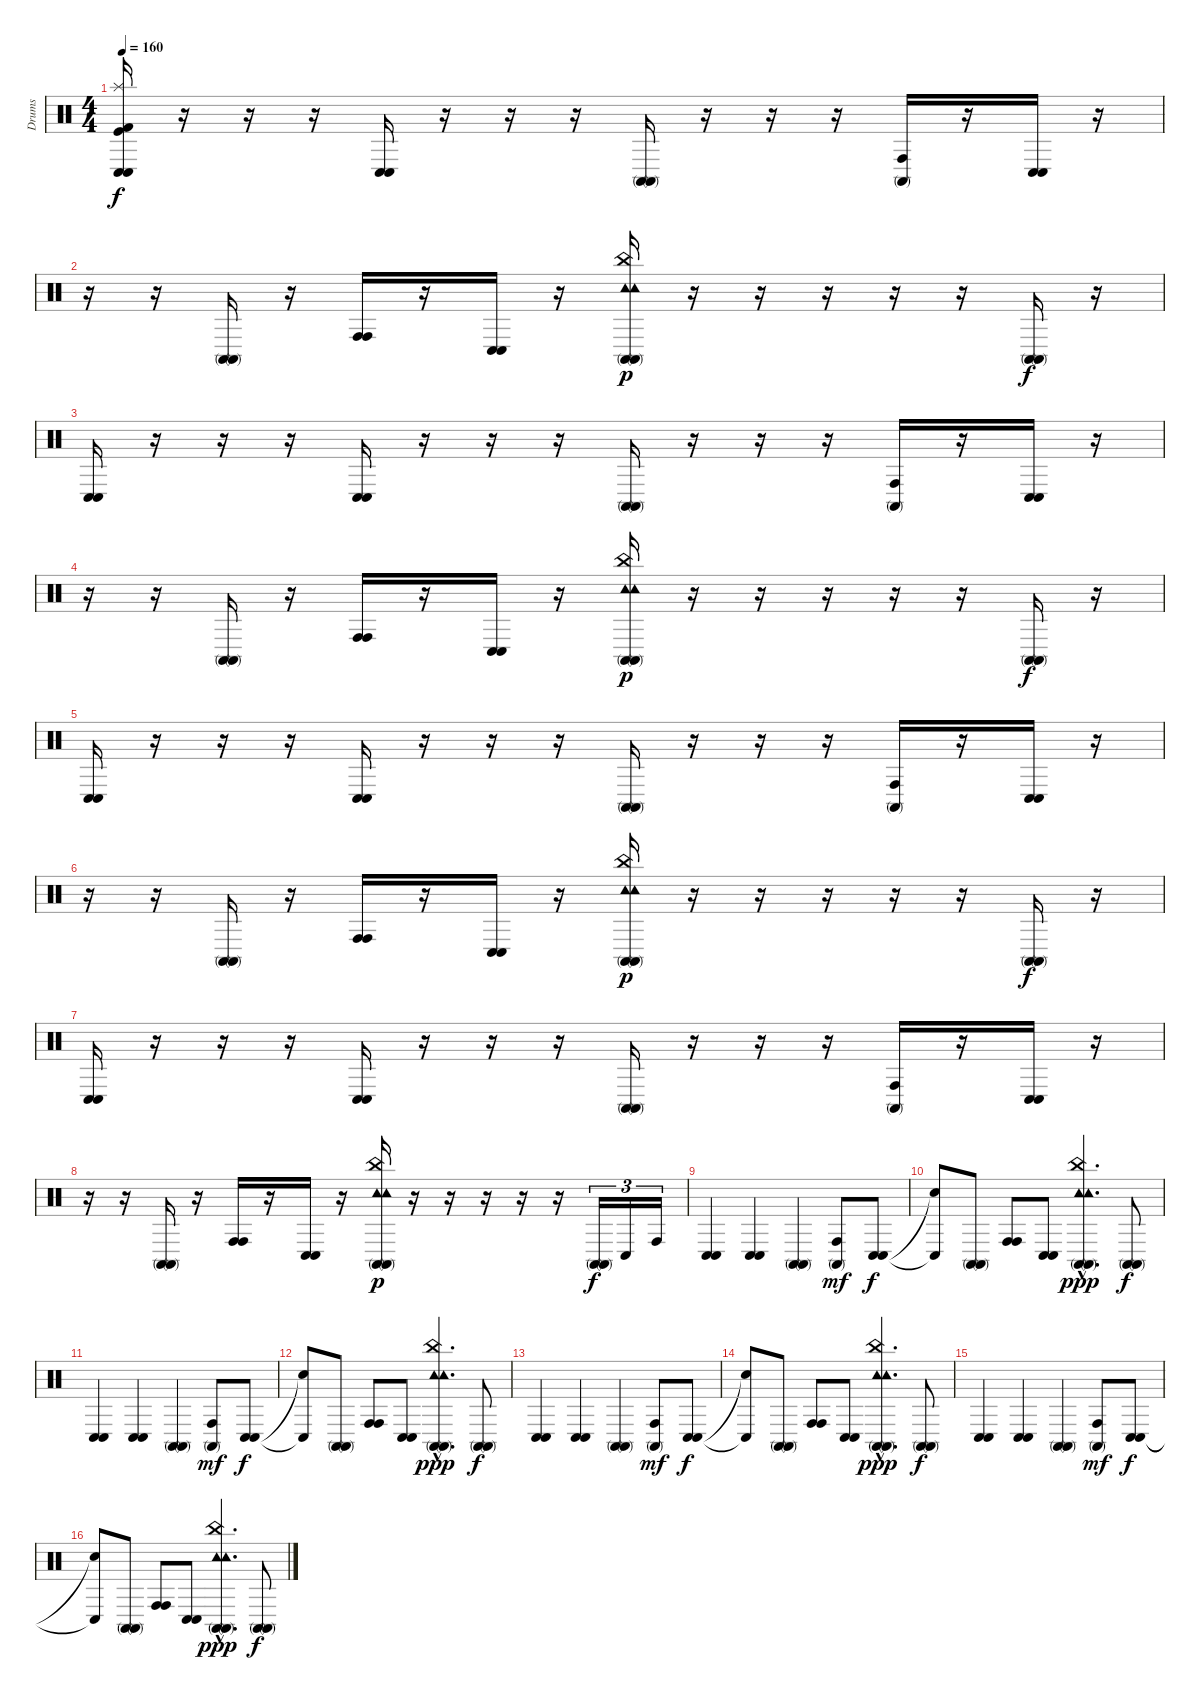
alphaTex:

\track ("Drums" "Drums") {instrument percussion}
\staff {score}
\articulation defaults
\ts (4 4)
\tempo 160
\clef neutral
\ks c
("Conga low (hit)" "Conga low (hit)" "Splash (hit)" "Kick (hit)" "Kick (hit) 2").16{dy f} r.16 r.16 r.16 ("Conga low (hit)" "Conga low (hit)").16 r.16 r.16 r.16 ("Conga high (mute)" "Conga high (mute)").16 r.16 r.16 r.16 ("Conga high (hit)" "Conga high (mute)").16 r.16 ("Conga low (hit)" "Conga low (hit)").16 r.16 |
r.16 r.16 ("Conga high (mute)" "Conga high (mute)").16 r.16 ("Conga high (hit)" "Conga high (hit)").16 r.16 ("Conga low (hit)" "Conga low (hit)").16 r.16 ("Conga high (mute)" "Conga high (mute)" "Tambourine (hit)" "Tambourine (hit)" "China (hit)").16{dy p} r.16 r.16 r.16 r.16 r.16 ("Conga high (mute)" "Conga high (mute)").16{dy f} r.16 |
("Conga low (hit)" "Conga low (hit)").16 r.16 r.16 r.16 ("Conga low (hit)" "Conga low (hit)").16 r.16 r.16 r.16 ("Conga high (mute)" "Conga high (mute)").16 r.16 r.16 r.16 ("Conga high (hit)" "Conga high (mute)").16 r.16 ("Conga low (hit)" "Conga low (hit)").16 r.16 |
r.16 r.16 ("Conga high (mute)" "Conga high (mute)").16 r.16 ("Conga high (hit)" "Conga high (hit)").16 r.16 ("Conga low (hit)" "Conga low (hit)").16 r.16 ("Conga high (mute)" "Conga high (mute)" "Tambourine (hit)" "Tambourine (hit)" "China (hit)").16{dy p} r.16 r.16 r.16 r.16 r.16 ("Conga high (mute)" "Conga high (mute)").16{dy f} r.16 |
("Conga low (hit)" "Conga low (hit)").16 r.16 r.16 r.16 ("Conga low (hit)" "Conga low (hit)").16 r.16 r.16 r.16 ("Conga high (mute)" "Conga high (mute)").16 r.16 r.16 r.16 ("Conga high (hit)" "Conga high (mute)").16 r.16 ("Conga low (hit)" "Conga low (hit)").16 r.16 |
r.16 r.16 ("Conga high (mute)" "Conga high (mute)").16 r.16 ("Conga high (hit)" "Conga high (hit)").16 r.16 ("Conga low (hit)" "Conga low (hit)").16 r.16 ("Conga high (mute)" "Conga high (mute)" "Tambourine (hit)" "Tambourine (hit)" "China (hit)").16{dy p} r.16 r.16 r.16 r.16 r.16 ("Conga high (mute)" "Conga high (mute)").16{dy f} r.16 |
("Conga low (hit)" "Conga low (hit)").16 r.16 r.16 r.16 ("Conga low (hit)" "Conga low (hit)").16 r.16 r.16 r.16 ("Conga high (mute)" "Conga high (mute)").16 r.16 r.16 r.16 ("Conga high (hit)" "Conga high (mute)").16 r.16 ("Conga low (hit)" "Conga low (hit)").16 r.16 |
r.16 r.16 ("Conga high (mute)" "Conga high (mute)").16 r.16 ("Conga high (hit)" "Conga high (hit)").16 r.16 ("Conga low (hit)" "Conga low (hit)").16 r.16 ("Conga high (mute)" "Conga high (mute)" "Tambourine (hit)" "Tambourine (hit)" "China (hit)").16{dy p} r.16 r.16 r.16 r.16 r.16 ("Conga high (mute)" "Conga high (mute)").16{tu (3 2) dy f} "Conga low (hit)".16{tu (3 2)} "Conga high (hit)".16{tu (3 2)} |
("Conga low (hit)" "Conga low (hit)").4 ("Conga low (hit)" "Conga low (hit)").4 ("Conga high (mute)" "Conga high (mute)").4 ("Conga high (hit)" "Conga high (mute)").8{dy mf} ("Conga low (hit)" "Conga low (hit)").8{dy f} |
("Conga low (hit)"{t} "Snare (hit)"{t}).8 ("Conga high (mute)" "Conga high (mute)").8 ("Conga high (hit)" "Conga high (hit)").8 ("Conga low (hit)" "Conga low (hit)").8 ("Conga high (mute)"{hac} "Conga high (mute)"{hac} "Tambourine (hit)"{hac} "Tambourine (hit)"{hac} "China (hit)"{hac}).4{d dy ppp} ("Conga high (mute)" "Conga high (mute)").8{dy f} |
("Conga low (hit)" "Conga low (hit)").4 ("Conga low (hit)" "Conga low (hit)").4 ("Conga high (mute)" "Conga high (mute)").4 ("Conga high (hit)" "Conga high (mute)").8{dy mf} ("Conga low (hit)" "Conga low (hit)").8{dy f} |
("Conga low (hit)"{t} "Snare (hit)"{t}).8 ("Conga high (mute)" "Conga high (mute)").8 ("Conga high (hit)" "Conga high (hit)").8 ("Conga low (hit)" "Conga low (hit)").8 ("Conga high (mute)"{hac} "Conga high (mute)"{hac} "Tambourine (hit)"{hac} "Tambourine (hit)"{hac} "China (hit)"{hac}).4{d dy ppp} ("Conga high (mute)" "Conga high (mute)").8{dy f} |
("Conga low (hit)" "Conga low (hit)").4 ("Conga low (hit)" "Conga low (hit)").4 ("Conga high (mute)" "Conga high (mute)").4 ("Conga high (hit)" "Conga high (mute)").8{dy mf} ("Conga low (hit)" "Conga low (hit)").8{dy f} |
("Conga low (hit)"{t} "Snare (hit)"{t}).8 ("Conga high (mute)" "Conga high (mute)").8 ("Conga high (hit)" "Conga high (hit)").8 ("Conga low (hit)" "Conga low (hit)").8 ("Conga high (mute)"{hac} "Conga high (mute)"{hac} "Tambourine (hit)"{hac} "Tambourine (hit)"{hac} "China (hit)"{hac}).4{d dy ppp} ("Conga high (mute)" "Conga high (mute)").8{dy f} |
("Conga low (hit)" "Conga low (hit)").4 ("Conga low (hit)" "Conga low (hit)").4 ("Conga high (mute)" "Conga high (mute)").4 ("Conga high (hit)" "Conga high (mute)").8{dy mf} ("Conga low (hit)" "Conga low (hit)").8{dy f} |
("Conga low (hit)"{t} "Snare (hit)"{t}).8 ("Conga high (mute)" "Conga high (mute)").8 ("Conga high (hit)" "Conga high (hit)").8 ("Conga low (hit)" "Conga low (hit)").8 ("Conga high (mute)"{hac} "Conga high (mute)"{hac} "Tambourine (hit)"{hac} "Tambourine (hit)"{hac} "China (hit)"{hac}).4{d dy ppp} ("Conga high (mute)" "Conga high (mute)").8{dy f}
